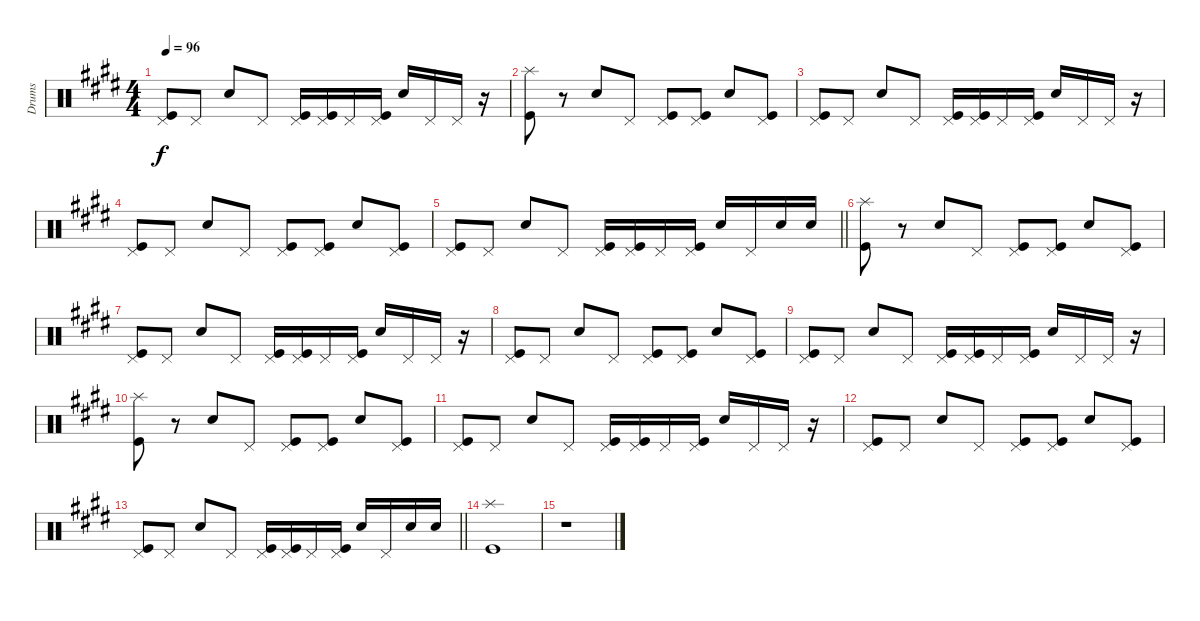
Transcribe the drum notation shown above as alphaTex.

\track ("Drums" "Drums") {instrument percussion}
\staff {score}
\articulation defaults
\ts (4 4)
\tempo 96
\clef neutral
\ks e
("Kick (hit)" "Pedal Hi-Hat (hit)").8{dy f} "Pedal Hi-Hat (hit)".8 "Electric Snare (hit)".8 "Pedal Hi-Hat (hit)".8 ("Kick (hit)" "Pedal Hi-Hat (hit)").16 ("Kick (hit)" "Pedal Hi-Hat (hit)").16 "Pedal Hi-Hat (hit)".16 ("Kick (hit)" "Pedal Hi-Hat (hit)").16 "Electric Snare (hit)".16 "Pedal Hi-Hat (hit)".16 "Pedal Hi-Hat (hit)".16 r.16 |
("Kick (hit)" "Splash (hit)").8 r.8 "Electric Snare (hit)".8 "Pedal Hi-Hat (hit)".8 ("Kick (hit)" "Pedal Hi-Hat (hit)").8 ("Kick (hit)" "Pedal Hi-Hat (hit)").8 "Electric Snare (hit)".8 ("Kick (hit)" "Pedal Hi-Hat (hit)").8 |
("Kick (hit)" "Pedal Hi-Hat (hit)").8 "Pedal Hi-Hat (hit)".8 "Electric Snare (hit)".8 "Pedal Hi-Hat (hit)".8 ("Kick (hit)" "Pedal Hi-Hat (hit)").16 ("Kick (hit)" "Pedal Hi-Hat (hit)").16 "Pedal Hi-Hat (hit)".16 ("Kick (hit)" "Pedal Hi-Hat (hit)").16 "Electric Snare (hit)".16 "Pedal Hi-Hat (hit)".16 "Pedal Hi-Hat (hit)".16 r.16 |
("Kick (hit)" "Pedal Hi-Hat (hit)").8 "Pedal Hi-Hat (hit)".8 "Electric Snare (hit)".8 "Pedal Hi-Hat (hit)".8 ("Kick (hit)" "Pedal Hi-Hat (hit)").8 ("Kick (hit)" "Pedal Hi-Hat (hit)").8 "Electric Snare (hit)".8 ("Kick (hit)" "Pedal Hi-Hat (hit)").8 |
\barLineRight lightlight
("Kick (hit)" "Pedal Hi-Hat (hit)").8 "Pedal Hi-Hat (hit)".8 "Electric Snare (hit)".8 "Pedal Hi-Hat (hit)".8 ("Kick (hit)" "Pedal Hi-Hat (hit)").16 ("Kick (hit)" "Pedal Hi-Hat (hit)").16 "Pedal Hi-Hat (hit)".16 ("Kick (hit)" "Pedal Hi-Hat (hit)").16 "Electric Snare (hit)".16 "Pedal Hi-Hat (hit)".16 "Electric Snare (hit)".16 "Electric Snare (hit)".16 |
("Kick (hit)" "Splash (hit)").8 r.8 "Electric Snare (hit)".8 "Pedal Hi-Hat (hit)".8 ("Kick (hit)" "Pedal Hi-Hat (hit)").8 ("Kick (hit)" "Pedal Hi-Hat (hit)").8 "Electric Snare (hit)".8 ("Kick (hit)" "Pedal Hi-Hat (hit)").8 |
("Kick (hit)" "Pedal Hi-Hat (hit)").8 "Pedal Hi-Hat (hit)".8 "Electric Snare (hit)".8 "Pedal Hi-Hat (hit)".8 ("Kick (hit)" "Pedal Hi-Hat (hit)").16 ("Kick (hit)" "Pedal Hi-Hat (hit)").16 "Pedal Hi-Hat (hit)".16 ("Kick (hit)" "Pedal Hi-Hat (hit)").16 "Electric Snare (hit)".16 "Pedal Hi-Hat (hit)".16 "Pedal Hi-Hat (hit)".16 r.16 |
("Kick (hit)" "Pedal Hi-Hat (hit)").8 "Pedal Hi-Hat (hit)".8 "Electric Snare (hit)".8 "Pedal Hi-Hat (hit)".8 ("Kick (hit)" "Pedal Hi-Hat (hit)").8 ("Kick (hit)" "Pedal Hi-Hat (hit)").8 "Electric Snare (hit)".8 ("Kick (hit)" "Pedal Hi-Hat (hit)").8 |
("Kick (hit)" "Pedal Hi-Hat (hit)").8 "Pedal Hi-Hat (hit)".8 "Electric Snare (hit)".8 "Pedal Hi-Hat (hit)".8 ("Kick (hit)" "Pedal Hi-Hat (hit)").16 ("Kick (hit)" "Pedal Hi-Hat (hit)").16 "Pedal Hi-Hat (hit)".16 ("Kick (hit)" "Pedal Hi-Hat (hit)").16 "Electric Snare (hit)".16 "Pedal Hi-Hat (hit)".16 "Pedal Hi-Hat (hit)".16 r.16 |
("Kick (hit)" "Splash (hit)").8 r.8 "Electric Snare (hit)".8 "Pedal Hi-Hat (hit)".8 ("Kick (hit)" "Pedal Hi-Hat (hit)").8 ("Kick (hit)" "Pedal Hi-Hat (hit)").8 "Electric Snare (hit)".8 ("Kick (hit)" "Pedal Hi-Hat (hit)").8 |
("Kick (hit)" "Pedal Hi-Hat (hit)").8 "Pedal Hi-Hat (hit)".8 "Electric Snare (hit)".8 "Pedal Hi-Hat (hit)".8 ("Kick (hit)" "Pedal Hi-Hat (hit)").16 ("Kick (hit)" "Pedal Hi-Hat (hit)").16 "Pedal Hi-Hat (hit)".16 ("Kick (hit)" "Pedal Hi-Hat (hit)").16 "Electric Snare (hit)".16 "Pedal Hi-Hat (hit)".16 "Pedal Hi-Hat (hit)".16 r.16 |
("Kick (hit)" "Pedal Hi-Hat (hit)").8 "Pedal Hi-Hat (hit)".8 "Electric Snare (hit)".8 "Pedal Hi-Hat (hit)".8 ("Kick (hit)" "Pedal Hi-Hat (hit)").8 ("Kick (hit)" "Pedal Hi-Hat (hit)").8 "Electric Snare (hit)".8 ("Kick (hit)" "Pedal Hi-Hat (hit)").8 |
\barLineRight lightlight
("Kick (hit)" "Pedal Hi-Hat (hit)").8 "Pedal Hi-Hat (hit)".8 "Electric Snare (hit)".8 "Pedal Hi-Hat (hit)".8 ("Kick (hit)" "Pedal Hi-Hat (hit)").16 ("Kick (hit)" "Pedal Hi-Hat (hit)").16 "Pedal Hi-Hat (hit)".16 ("Kick (hit)" "Pedal Hi-Hat (hit)").16 "Electric Snare (hit)".16 "Pedal Hi-Hat (hit)".16 "Electric Snare (hit)".16 "Electric Snare (hit)".16 |
("Kick (hit)" "Splash (hit)").1 |
r.1
